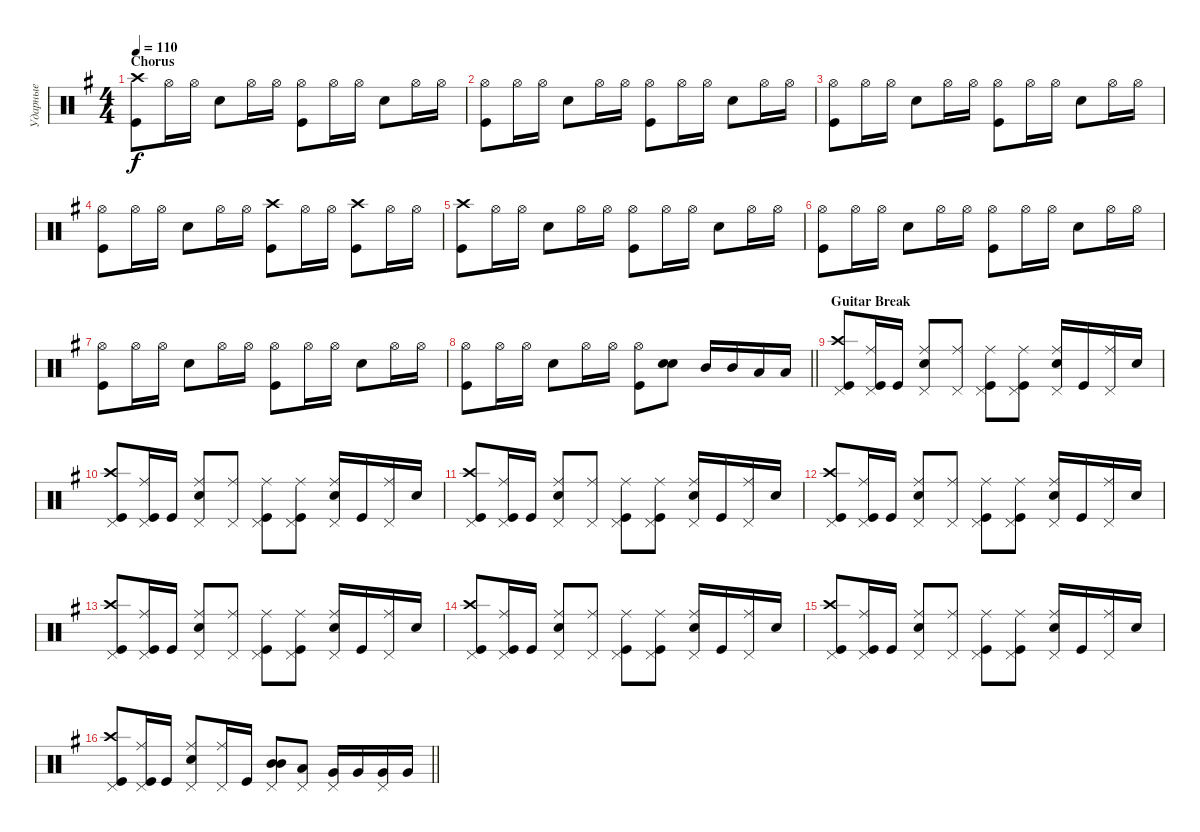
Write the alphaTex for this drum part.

\track ("Ударные" "Ударные") {instrument percussion}
\staff {score}
\articulation defaults
\ts (4 4)
\section ("" "Chorus")
\tempo 110
\clef neutral
\ks eminor
("Kick (hit)" "Crash high (hit)").8{dy f} "Hi-Hat (open)".16 "Hi-Hat (open)".16 "Snare (hit) 2".8 "Hi-Hat (open)".16 "Hi-Hat (open)".16 ("Kick (hit)" "Hi-Hat (open)").8 "Hi-Hat (open)".16 "Hi-Hat (open)".16 "Snare (hit) 2".8 "Hi-Hat (open)".16 "Hi-Hat (open)".16 |
("Kick (hit)" "Hi-Hat (open)").8 "Hi-Hat (open)".16 "Hi-Hat (open)".16 "Snare (hit) 2".8 "Hi-Hat (open)".16 "Hi-Hat (open)".16 ("Kick (hit)" "Hi-Hat (open)").8 "Hi-Hat (open)".16 "Hi-Hat (open)".16 "Snare (hit) 2".8 "Hi-Hat (open)".16 "Hi-Hat (open)".16 |
("Kick (hit)" "Hi-Hat (open)").8 "Hi-Hat (open)".16 "Hi-Hat (open)".16 "Snare (hit) 2".8 "Hi-Hat (open)".16 "Hi-Hat (open)".16 ("Kick (hit)" "Hi-Hat (open)").8 "Hi-Hat (open)".16 "Hi-Hat (open)".16 "Snare (hit) 2".8 "Hi-Hat (open)".16 "Hi-Hat (open)".16 |
("Kick (hit)" "Hi-Hat (open)").8 "Hi-Hat (open)".16 "Hi-Hat (open)".16 "Snare (hit) 2".8 "Hi-Hat (open)".16 "Hi-Hat (open)".16 ("Kick (hit)" "Crash high (hit)").8 "Hi-Hat (open)".16 "Hi-Hat (open)".16 ("Kick (hit)" "Crash high (hit)").8 "Hi-Hat (open)".16 "Hi-Hat (open)".16 |
("Kick (hit)" "Crash high (hit)").8 "Hi-Hat (open)".16 "Hi-Hat (open)".16 "Snare (hit) 2".8 "Hi-Hat (open)".16 "Hi-Hat (open)".16 ("Kick (hit)" "Hi-Hat (open)").8 "Hi-Hat (open)".16 "Hi-Hat (open)".16 "Snare (hit) 2".8 "Hi-Hat (open)".16 "Hi-Hat (open)".16 |
("Kick (hit)" "Hi-Hat (open)").8 "Hi-Hat (open)".16 "Hi-Hat (open)".16 "Snare (hit) 2".8 "Hi-Hat (open)".16 "Hi-Hat (open)".16 ("Kick (hit)" "Hi-Hat (open)").8 "Hi-Hat (open)".16 "Hi-Hat (open)".16 "Snare (hit) 2".8 "Hi-Hat (open)".16 "Hi-Hat (open)".16 |
("Kick (hit)" "Hi-Hat (open)").8 "Hi-Hat (open)".16 "Hi-Hat (open)".16 "Snare (hit) 2".8 "Hi-Hat (open)".16 "Hi-Hat (open)".16 ("Kick (hit)" "Hi-Hat (open)").8 "Hi-Hat (open)".16 "Hi-Hat (open)".16 "Snare (hit) 2".8 "Hi-Hat (open)".16 "Hi-Hat (open)".16 |
\barLineRight lightlight
("Kick (hit)" "Hi-Hat (open)").8 "Hi-Hat (open)".16 "Hi-Hat (open)".16 "Snare (hit) 2".8 "Hi-Hat (open)".16 "Hi-Hat (open)".16 ("Kick (hit)" "Hi-Hat (open)").8 ("Snare (hit) 2" "Snare (hit) 2").8{bd 120} "Mid Tom (hit)".16 "Mid Tom (hit)".16 "Low Tom (hit)".16 "Low Tom (hit)".16 |
\section ("" "Guitar Break")
("Kick (hit)" "Pedal Hi-Hat (hit)" "Crash high (hit)").8 ("Kick (hit)" "Ride (middle)" "Pedal Hi-Hat (hit)").16 "Kick (hit)".16 ("Snare (hit) 2" "Ride (middle)" "Pedal Hi-Hat (hit)").8 ("Ride (middle)" "Pedal Hi-Hat (hit)").8 ("Kick (hit)" "Ride (middle)" "Pedal Hi-Hat (hit)").8 ("Kick (hit)" "Ride (middle)" "Pedal Hi-Hat (hit)").8 ("Snare (hit) 2" "Ride (middle)" "Pedal Hi-Hat (hit)").16 "Kick (hit)".16 ("Ride (middle)" "Pedal Hi-Hat (hit)").16 "Snare (hit) 2".16 |
("Kick (hit)" "Pedal Hi-Hat (hit)" "Crash high (hit)").8 ("Kick (hit)" "Ride (middle)" "Pedal Hi-Hat (hit)").16 "Kick (hit)".16 ("Snare (hit) 2" "Ride (middle)" "Pedal Hi-Hat (hit)").8 ("Ride (middle)" "Pedal Hi-Hat (hit)").8 ("Kick (hit)" "Ride (middle)" "Pedal Hi-Hat (hit)").8 ("Kick (hit)" "Ride (middle)" "Pedal Hi-Hat (hit)").8 ("Snare (hit) 2" "Ride (middle)" "Pedal Hi-Hat (hit)").16 "Kick (hit)".16 ("Ride (middle)" "Pedal Hi-Hat (hit)").16 "Snare (hit) 2".16 |
("Kick (hit)" "Pedal Hi-Hat (hit)" "Crash high (hit)").8 ("Kick (hit)" "Ride (middle)" "Pedal Hi-Hat (hit)").16 "Kick (hit)".16 ("Snare (hit) 2" "Ride (middle)" "Pedal Hi-Hat (hit)").8 ("Ride (middle)" "Pedal Hi-Hat (hit)").8 ("Kick (hit)" "Ride (middle)" "Pedal Hi-Hat (hit)").8 ("Kick (hit)" "Ride (middle)" "Pedal Hi-Hat (hit)").8 ("Snare (hit) 2" "Ride (middle)" "Pedal Hi-Hat (hit)").16 "Kick (hit)".16 ("Ride (middle)" "Pedal Hi-Hat (hit)").16 "Snare (hit) 2".16 |
("Kick (hit)" "Pedal Hi-Hat (hit)" "Crash high (hit)").8 ("Kick (hit)" "Ride (middle)" "Pedal Hi-Hat (hit)").16 "Kick (hit)".16 ("Snare (hit) 2" "Ride (middle)" "Pedal Hi-Hat (hit)").8 ("Ride (middle)" "Pedal Hi-Hat (hit)").8 ("Kick (hit)" "Ride (middle)" "Pedal Hi-Hat (hit)").8 ("Kick (hit)" "Ride (middle)" "Pedal Hi-Hat (hit)").8 ("Snare (hit) 2" "Ride (middle)" "Pedal Hi-Hat (hit)").16 "Kick (hit)".16 ("Ride (middle)" "Pedal Hi-Hat (hit)").16 "Snare (hit) 2".16 |
("Kick (hit)" "Pedal Hi-Hat (hit)" "Crash high (hit)").8 ("Kick (hit)" "Ride (middle)" "Pedal Hi-Hat (hit)").16 "Kick (hit)".16 ("Snare (hit) 2" "Ride (middle)" "Pedal Hi-Hat (hit)").8 ("Ride (middle)" "Pedal Hi-Hat (hit)").8 ("Kick (hit)" "Ride (middle)" "Pedal Hi-Hat (hit)").8 ("Kick (hit)" "Ride (middle)" "Pedal Hi-Hat (hit)").8 ("Snare (hit) 2" "Ride (middle)" "Pedal Hi-Hat (hit)").16 "Kick (hit)".16 ("Ride (middle)" "Pedal Hi-Hat (hit)").16 "Snare (hit) 2".16 |
("Kick (hit)" "Pedal Hi-Hat (hit)" "Crash high (hit)").8 ("Kick (hit)" "Ride (middle)" "Pedal Hi-Hat (hit)").16 "Kick (hit)".16 ("Snare (hit) 2" "Ride (middle)" "Pedal Hi-Hat (hit)").8 ("Ride (middle)" "Pedal Hi-Hat (hit)").8 ("Kick (hit)" "Ride (middle)" "Pedal Hi-Hat (hit)").8 ("Kick (hit)" "Ride (middle)" "Pedal Hi-Hat (hit)").8 ("Snare (hit) 2" "Ride (middle)" "Pedal Hi-Hat (hit)").16 "Kick (hit)".16 ("Ride (middle)" "Pedal Hi-Hat (hit)").16 "Snare (hit) 2".16 |
("Kick (hit)" "Pedal Hi-Hat (hit)" "Crash high (hit)").8 ("Kick (hit)" "Ride (middle)" "Pedal Hi-Hat (hit)").16 "Kick (hit)".16 ("Snare (hit) 2" "Ride (middle)" "Pedal Hi-Hat (hit)").8 ("Ride (middle)" "Pedal Hi-Hat (hit)").8 ("Kick (hit)" "Ride (middle)" "Pedal Hi-Hat (hit)").8 ("Kick (hit)" "Ride (middle)" "Pedal Hi-Hat (hit)").8 ("Snare (hit) 2" "Ride (middle)" "Pedal Hi-Hat (hit)").16 "Kick (hit)".16 ("Ride (middle)" "Pedal Hi-Hat (hit)").16 "Snare (hit) 2".16 |
\barLineRight lightlight
("Kick (hit)" "Pedal Hi-Hat (hit)" "Crash high (hit)").8 ("Kick (hit)" "Ride (middle)" "Pedal Hi-Hat (hit)").16 "Kick (hit)".16 ("Snare (hit) 2" "Ride (middle)" "Pedal Hi-Hat (hit)").8 ("Pedal Hi-Hat (hit)" "Ride (middle)").16 "Kick (hit)".16 ("Mid Tom (hit)" "Mid Tom (hit)" "Pedal Hi-Hat (hit)").8{bd 120} ("Low Tom (hit)" "Pedal Hi-Hat (hit)").8 ("Very Low Tom (hit)" "Pedal Hi-Hat (hit)").16 "Very Low Tom (hit)".16 ("Very Low Tom (hit)" "Pedal Hi-Hat (hit)").16 "Very Low Tom (hit)".16
